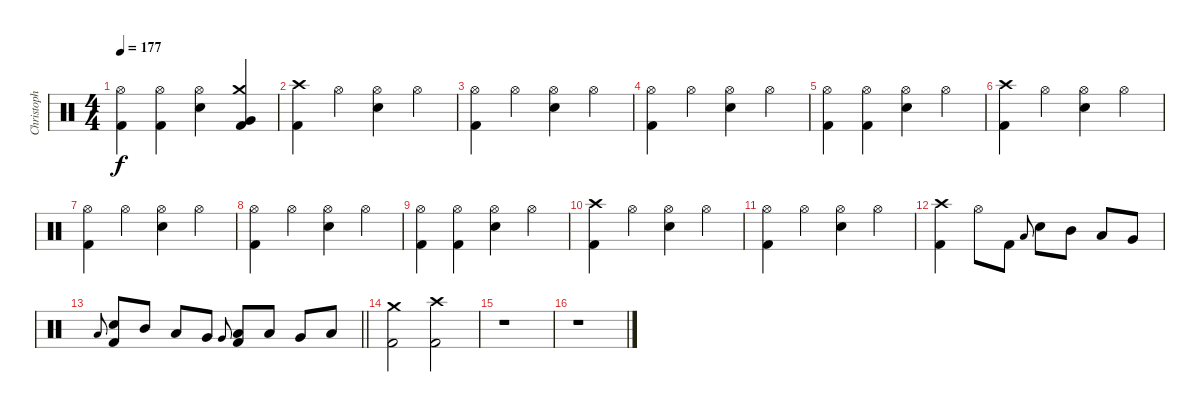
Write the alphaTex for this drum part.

\track ("Christoph Schneider [drums]" "Christoph ") {instrument percussion}
\staff {score}
\articulation defaults
\ts (4 4)
\tempo 177
\clef neutral
\ks c
("Hi-Hat (open)" "Kick (hit) 2").4{dy f} ("Hi-Hat (open)" "Kick (hit) 2").4 ("Hi-Hat (open)" "Snare (hit) 2").4 ("Crash medium (hit)" "Very Low Tom (hit)" "Kick (hit) 2").4 |
("Crash high (hit)" "Kick (hit) 2").4 "Hi-Hat (open)".4 ("Hi-Hat (open)" "Snare (hit) 2").4 "Hi-Hat (open)".4 |
("Hi-Hat (open)" "Kick (hit) 2").4 "Hi-Hat (open)".4 ("Hi-Hat (open)" "Snare (hit) 2").4 "Hi-Hat (open)".4 |
("Hi-Hat (open)" "Kick (hit) 2").4 "Hi-Hat (open)".4 ("Hi-Hat (open)" "Snare (hit) 2").4 "Hi-Hat (open)".4 |
("Hi-Hat (open)" "Kick (hit) 2").4 ("Hi-Hat (open)" "Kick (hit) 2").4 ("Hi-Hat (open)" "Snare (hit) 2").4 "Hi-Hat (open)".4 |
("Crash high (hit)" "Kick (hit) 2").4 "Hi-Hat (open)".4 ("Hi-Hat (open)" "Snare (hit) 2").4 "Hi-Hat (open)".4 |
("Hi-Hat (open)" "Kick (hit) 2").4 "Hi-Hat (open)".4 ("Hi-Hat (open)" "Snare (hit) 2").4 "Hi-Hat (open)".4 |
("Hi-Hat (open)" "Kick (hit) 2").4 "Hi-Hat (open)".4 ("Hi-Hat (open)" "Snare (hit) 2").4 "Hi-Hat (open)".4 |
("Hi-Hat (open)" "Kick (hit) 2").4 ("Hi-Hat (open)" "Kick (hit) 2").4 ("Hi-Hat (open)" "Snare (hit) 2").4 "Hi-Hat (open)".4 |
("Crash high (hit)" "Kick (hit) 2").4 "Hi-Hat (open)".4 ("Hi-Hat (open)" "Snare (hit) 2").4 "Hi-Hat (open)".4 |
("Hi-Hat (open)" "Kick (hit) 2").4 "Hi-Hat (open)".4 ("Hi-Hat (open)" "Snare (hit) 2").4 "Hi-Hat (open)".4 |
("Crash high (hit)" "Kick (hit) 2").4 "Hi-Hat (open)".8 "Kick (hit) 2".8 "Low Tom (hit)".8{gr onbeat} "Snare (hit) 2".8 "Mid Tom (hit)".8 "Low Tom (hit)".8 "Very Low Tom (hit)".8 |
\barLineRight lightlight "Low Tom (hit)".8{gr onbeat}
("Snare (hit) 2" "Kick (hit) 2").8 "Mid Tom (hit)".8 "Low Tom (hit)".8 "Very Low Tom (hit)".8 "Very Low Tom (hit)".8{gr onbeat} ("Low Floor Tom (hit)" "Kick (hit) 2").8 "Low Tom (hit)".8 "Very Low Tom (hit)".8 "Low Floor Tom (hit)".8 |
\section ("" "")
("Crash medium (hit)" "Kick (hit) 2").2 ("Crash high (hit)" "Kick (hit) 2").2 |
r.1 |
r.1
